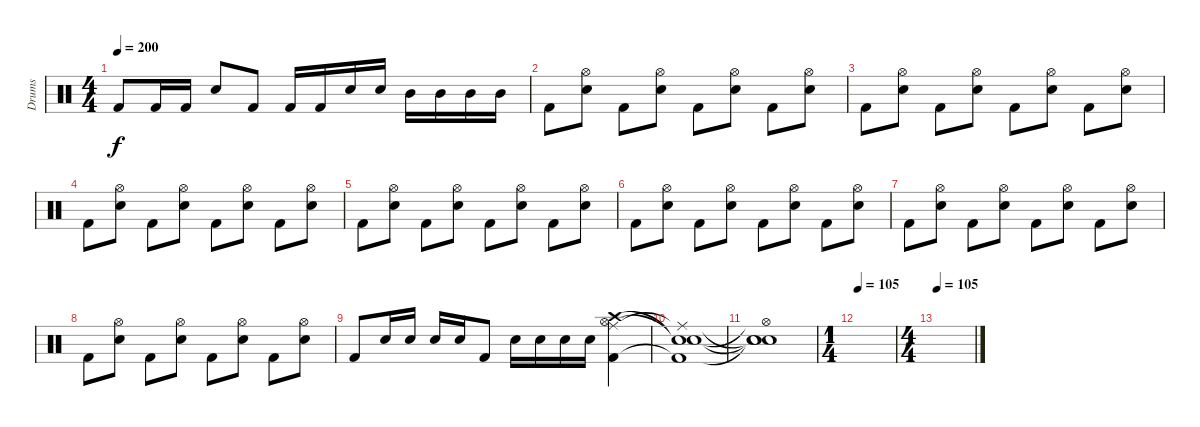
\track ("Drums" "Drums") {instrument percussion}
\staff {score}
\articulation defaults
\ts (4 4)
\tempo 200
\clef neutral
\ks c "Kick (hit) 2".8{dy f} "Kick (hit) 2".16 "Kick (hit) 2".16 "Electric Snare (hit)".8 "Kick (hit) 2".8 "Kick (hit) 2".16 "Kick (hit) 2".16 "Electric Snare (hit)".16 "Electric Snare (hit)".16 "Mid Tom (hit)".16 "Mid Tom (hit)".16 "Mid Tom (hit)".16 "Mid Tom (hit)".16
|
"Kick (hit) 2".8 ("Hi-Hat (open)" "Electric Snare (hit)").8 "Kick (hit) 2".8 ("Hi-Hat (open)" "Electric Snare (hit)").8 "Kick (hit) 2".8 ("Hi-Hat (open)" "Electric Snare (hit)").8 "Kick (hit) 2".8 ("Hi-Hat (open)" "Electric Snare (hit)").8 |
"Kick (hit) 2".8 ("Hi-Hat (open)" "Electric Snare (hit)").8 "Kick (hit) 2".8 ("Hi-Hat (open)" "Electric Snare (hit)").8 "Kick (hit) 2".8 ("Hi-Hat (open)" "Electric Snare (hit)").8 "Kick (hit) 2".8 ("Hi-Hat (open)" "Electric Snare (hit)").8 |
"Kick (hit) 2".8 ("Hi-Hat (open)" "Electric Snare (hit)").8 "Kick (hit) 2".8 ("Hi-Hat (open)" "Electric Snare (hit)").8 "Kick (hit) 2".8 ("Hi-Hat (open)" "Electric Snare (hit)").8 "Kick (hit) 2".8 ("Hi-Hat (open)" "Electric Snare (hit)").8 |
"Kick (hit) 2".8 ("Hi-Hat (open)" "Electric Snare (hit)").8 "Kick (hit) 2".8 ("Hi-Hat (open)" "Electric Snare (hit)").8 "Kick (hit) 2".8 ("Hi-Hat (open)" "Electric Snare (hit)").8 "Kick (hit) 2".8 ("Hi-Hat (open)" "Electric Snare (hit)").8 |
"Kick (hit) 2".8 ("Hi-Hat (open)" "Electric Snare (hit)").8 "Kick (hit) 2".8 ("Hi-Hat (open)" "Electric Snare (hit)").8 "Kick (hit) 2".8 ("Hi-Hat (open)" "Electric Snare (hit)").8 "Kick (hit) 2".8 ("Hi-Hat (open)" "Electric Snare (hit)").8 |
"Kick (hit) 2".8 ("Hi-Hat (open)" "Electric Snare (hit)").8 "Kick (hit) 2".8 ("Hi-Hat (open)" "Electric Snare (hit)").8 "Kick (hit) 2".8 ("Hi-Hat (open)" "Electric Snare (hit)").8 "Kick (hit) 2".8 ("Hi-Hat (open)" "Electric Snare (hit)").8 |
"Kick (hit) 2".8 ("Hi-Hat (open)" "Electric Snare (hit)").8 "Kick (hit) 2".8 ("Hi-Hat (open)" "Electric Snare (hit)").8 "Kick (hit) 2".8 ("Hi-Hat (open)" "Electric Snare (hit)").8 "Kick (hit) 2".8 ("Hi-Hat (open)" "Electric Snare (hit)").8 |
"Kick (hit) 2".8 "Electric Snare (hit)".16 "Electric Snare (hit)".16 "Electric Snare (hit)".16 "Electric Snare (hit)".16 "Kick (hit) 2".8 "Electric Snare (hit)".16 "Electric Snare (hit)".16 "Electric Snare (hit)".16 "Electric Snare (hit)".16 ("Ride (middle)" "Crash high (hit)" "Hi-Hat (open)" "Kick (hit) 2").4 |
("Ride (middle)"{t} "Snare (hit)"{t} "Snare (hit)"{t} "Kick (hit) 2"{t}).1 |
("Snare (hit)"{t} "Snare (hit)"{t} "Hi-Hat (open)"{t} "Snare (hit)"{t}).1 |
\ts (1 4)
\tempo 105
|
\ts (4 4)
\tempo 105
